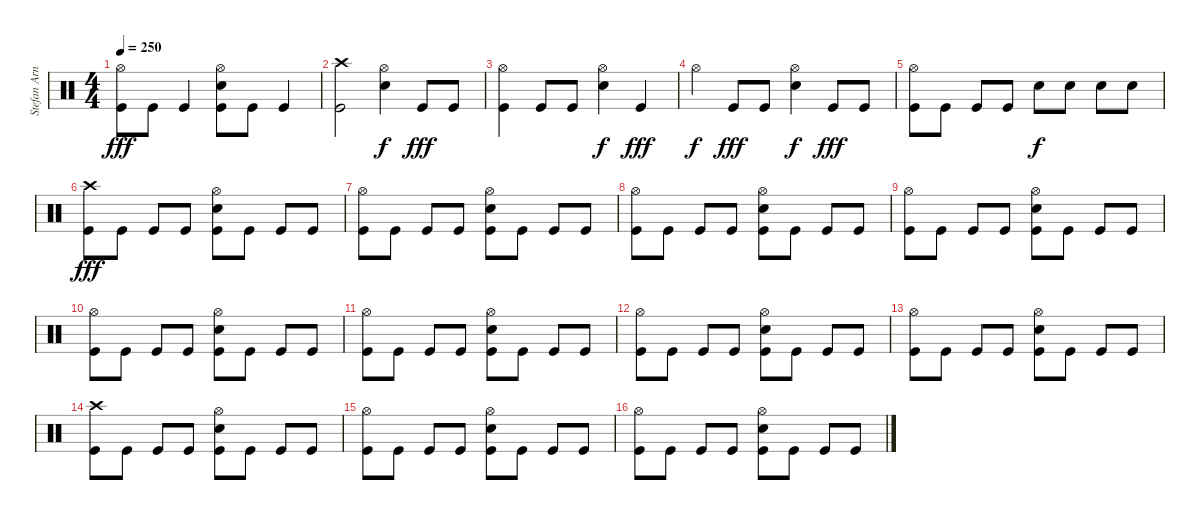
\track ("Stefan Arnold (Batería)" "Stefan Arn") {instrument percussion}
\staff {score}
\articulation defaults
\ts (4 4)
\tempo 250
\clef neutral
\ks c
("Hi-Hat (open)" "Kick (hit)").8{dy fff} "Kick (hit)".8 "Kick (hit)".4 ("Hi-Hat (open)" "Electric Snare (hit)" "Kick (hit)").8 "Kick (hit)".8 "Kick (hit)".4 |
("Crash high (hit)" "Kick (hit)").2 ("Hi-Hat (open)" "Electric Snare (hit)").4{dy f} "Kick (hit)".8{dy fff} "Kick (hit)".8 |
("Hi-Hat (open)" "Kick (hit)").4 "Kick (hit)".8 "Kick (hit)".8 ("Hi-Hat (open)" "Electric Snare (hit)").4{dy f} "Kick (hit)".4{dy fff} |
"Hi-Hat (open)".4{dy f} "Kick (hit)".8{dy fff} "Kick (hit)".8 ("Hi-Hat (open)" "Electric Snare (hit)").4{dy f} "Kick (hit)".8{dy fff} "Kick (hit)".8 |
("Hi-Hat (open)" "Kick (hit)").8 "Kick (hit)".8 "Kick (hit)".8 "Kick (hit)".8 "Electric Snare (hit)".8{dy f} "Electric Snare (hit)".8 "Electric Snare (hit)".8 "Electric Snare (hit)".8 |
("Crash high (hit)" "Kick (hit)").8{dy fff} "Kick (hit)".8 "Kick (hit)".8 "Kick (hit)".8 ("Hi-Hat (open)" "Electric Snare (hit)" "Kick (hit)").8 "Kick (hit)".8 "Kick (hit)".8 "Kick (hit)".8 |
("Hi-Hat (open)" "Kick (hit)").8 "Kick (hit)".8 "Kick (hit)".8 "Kick (hit)".8 ("Hi-Hat (open)" "Electric Snare (hit)" "Kick (hit)").8 "Kick (hit)".8 "Kick (hit)".8 "Kick (hit)".8 |
("Hi-Hat (open)" "Kick (hit)").8 "Kick (hit)".8 "Kick (hit)".8 "Kick (hit)".8 ("Hi-Hat (open)" "Electric Snare (hit)" "Kick (hit)").8 "Kick (hit)".8 "Kick (hit)".8 "Kick (hit)".8 |
("Hi-Hat (open)" "Kick (hit)").8 "Kick (hit)".8 "Kick (hit)".8 "Kick (hit)".8 ("Hi-Hat (open)" "Electric Snare (hit)" "Kick (hit)").8 "Kick (hit)".8 "Kick (hit)".8 "Kick (hit)".8 |
("Hi-Hat (open)" "Kick (hit)").8 "Kick (hit)".8 "Kick (hit)".8 "Kick (hit)".8 ("Hi-Hat (open)" "Electric Snare (hit)" "Kick (hit)").8 "Kick (hit)".8 "Kick (hit)".8 "Kick (hit)".8 |
("Hi-Hat (open)" "Kick (hit)").8 "Kick (hit)".8 "Kick (hit)".8 "Kick (hit)".8 ("Hi-Hat (open)" "Electric Snare (hit)" "Kick (hit)").8 "Kick (hit)".8 "Kick (hit)".8 "Kick (hit)".8 |
("Hi-Hat (open)" "Kick (hit)").8 "Kick (hit)".8 "Kick (hit)".8 "Kick (hit)".8 ("Hi-Hat (open)" "Electric Snare (hit)" "Kick (hit)").8 "Kick (hit)".8 "Kick (hit)".8 "Kick (hit)".8 |
("Hi-Hat (open)" "Kick (hit)").8 "Kick (hit)".8 "Kick (hit)".8 "Kick (hit)".8 ("Hi-Hat (open)" "Electric Snare (hit)" "Kick (hit)").8 "Kick (hit)".8 "Kick (hit)".8 "Kick (hit)".8 |
("Crash high (hit)" "Kick (hit)").8 "Kick (hit)".8 "Kick (hit)".8 "Kick (hit)".8 ("Hi-Hat (open)" "Electric Snare (hit)" "Kick (hit)").8 "Kick (hit)".8 "Kick (hit)".8 "Kick (hit)".8 |
("Hi-Hat (open)" "Kick (hit)").8 "Kick (hit)".8 "Kick (hit)".8 "Kick (hit)".8 ("Hi-Hat (open)" "Electric Snare (hit)" "Kick (hit)").8 "Kick (hit)".8 "Kick (hit)".8 "Kick (hit)".8 |
("Hi-Hat (open)" "Kick (hit)").8 "Kick (hit)".8 "Kick (hit)".8 "Kick (hit)".8 ("Hi-Hat (open)" "Electric Snare (hit)" "Kick (hit)").8 "Kick (hit)".8 "Kick (hit)".8 "Kick (hit)".8
